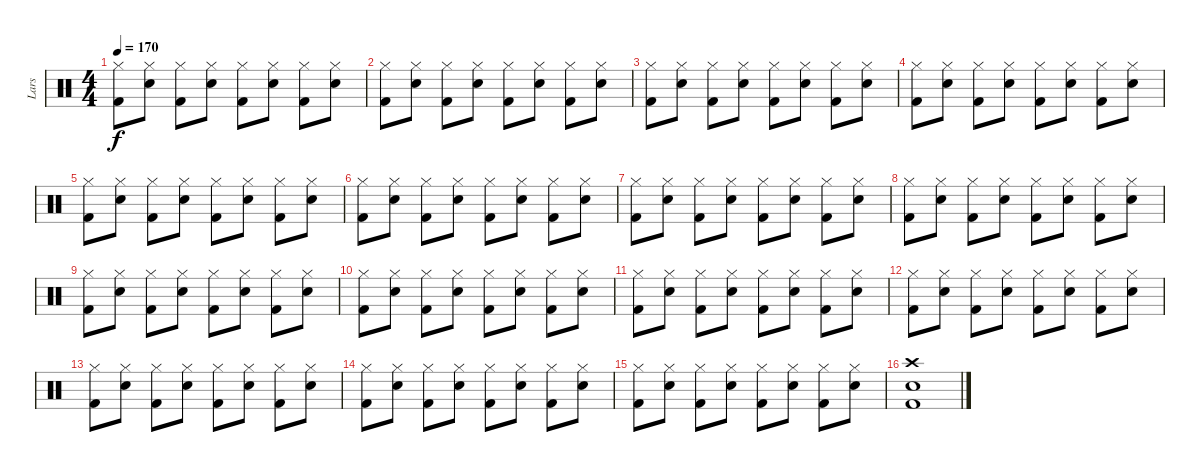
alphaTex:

\track ("Lars" "Lars") {instrument percussion}
\staff {score}
\articulation defaults
\ts (4 4)
\tempo 170
\clef neutral
\ks c
("Hi-Hat (closed)" "Kick (hit) 2").8{dy f} ("Hi-Hat (closed)" "Electric Snare (hit)").8 ("Hi-Hat (closed)" "Kick (hit) 2").8 ("Hi-Hat (closed)" "Electric Snare (hit)").8 ("Hi-Hat (closed)" "Kick (hit) 2").8 ("Hi-Hat (closed)" "Electric Snare (hit)").8 ("Hi-Hat (closed)" "Kick (hit) 2").8 ("Hi-Hat (closed)" "Electric Snare (hit)").8 |
("Hi-Hat (closed)" "Kick (hit) 2").8 ("Hi-Hat (closed)" "Electric Snare (hit)").8 ("Hi-Hat (closed)" "Kick (hit) 2").8 ("Hi-Hat (closed)" "Electric Snare (hit)").8 ("Hi-Hat (closed)" "Kick (hit) 2").8 ("Hi-Hat (closed)" "Electric Snare (hit)").8 ("Hi-Hat (closed)" "Kick (hit) 2").8 ("Hi-Hat (closed)" "Electric Snare (hit)").8 |
("Hi-Hat (closed)" "Kick (hit) 2").8 ("Hi-Hat (closed)" "Electric Snare (hit)").8 ("Hi-Hat (closed)" "Kick (hit) 2").8 ("Hi-Hat (closed)" "Electric Snare (hit)").8 ("Hi-Hat (closed)" "Kick (hit) 2").8 ("Hi-Hat (closed)" "Electric Snare (hit)").8 ("Hi-Hat (closed)" "Kick (hit) 2").8 ("Hi-Hat (closed)" "Electric Snare (hit)").8 |
("Hi-Hat (closed)" "Kick (hit) 2").8 ("Hi-Hat (closed)" "Electric Snare (hit)").8 ("Hi-Hat (closed)" "Kick (hit) 2").8 ("Hi-Hat (closed)" "Electric Snare (hit)").8 ("Hi-Hat (closed)" "Kick (hit) 2").8 ("Hi-Hat (closed)" "Electric Snare (hit)").8 ("Hi-Hat (closed)" "Kick (hit) 2").8 ("Hi-Hat (closed)" "Electric Snare (hit)").8 |
("Hi-Hat (closed)" "Kick (hit) 2").8 ("Hi-Hat (closed)" "Electric Snare (hit)").8 ("Hi-Hat (closed)" "Kick (hit) 2").8 ("Hi-Hat (closed)" "Electric Snare (hit)").8 ("Hi-Hat (closed)" "Kick (hit) 2").8 ("Hi-Hat (closed)" "Electric Snare (hit)").8 ("Hi-Hat (closed)" "Kick (hit) 2").8 ("Hi-Hat (closed)" "Electric Snare (hit)").8 |
("Hi-Hat (closed)" "Kick (hit) 2").8 ("Hi-Hat (closed)" "Electric Snare (hit)").8 ("Hi-Hat (closed)" "Kick (hit) 2").8 ("Hi-Hat (closed)" "Electric Snare (hit)").8 ("Hi-Hat (closed)" "Kick (hit) 2").8 ("Hi-Hat (closed)" "Electric Snare (hit)").8 ("Hi-Hat (closed)" "Kick (hit) 2").8 ("Hi-Hat (closed)" "Electric Snare (hit)").8 |
("Hi-Hat (closed)" "Kick (hit) 2").8 ("Hi-Hat (closed)" "Electric Snare (hit)").8 ("Hi-Hat (closed)" "Kick (hit) 2").8 ("Hi-Hat (closed)" "Electric Snare (hit)").8 ("Hi-Hat (closed)" "Kick (hit) 2").8 ("Hi-Hat (closed)" "Electric Snare (hit)").8 ("Hi-Hat (closed)" "Kick (hit) 2").8 ("Hi-Hat (closed)" "Electric Snare (hit)").8 |
("Hi-Hat (closed)" "Kick (hit) 2").8 ("Hi-Hat (closed)" "Electric Snare (hit)").8 ("Hi-Hat (closed)" "Kick (hit) 2").8 ("Hi-Hat (closed)" "Electric Snare (hit)").8 ("Hi-Hat (closed)" "Kick (hit) 2").8 ("Hi-Hat (closed)" "Electric Snare (hit)").8 ("Hi-Hat (closed)" "Kick (hit) 2").8 ("Hi-Hat (closed)" "Electric Snare (hit)").8 |
("Hi-Hat (closed)" "Kick (hit) 2").8 ("Hi-Hat (closed)" "Electric Snare (hit)").8 ("Hi-Hat (closed)" "Kick (hit) 2").8 ("Hi-Hat (closed)" "Electric Snare (hit)").8 ("Hi-Hat (closed)" "Kick (hit) 2").8 ("Hi-Hat (closed)" "Electric Snare (hit)").8 ("Hi-Hat (closed)" "Kick (hit) 2").8 ("Hi-Hat (closed)" "Electric Snare (hit)").8 |
("Hi-Hat (closed)" "Kick (hit) 2").8 ("Hi-Hat (closed)" "Electric Snare (hit)").8 ("Hi-Hat (closed)" "Kick (hit) 2").8 ("Hi-Hat (closed)" "Electric Snare (hit)").8 ("Hi-Hat (closed)" "Kick (hit) 2").8 ("Hi-Hat (closed)" "Electric Snare (hit)").8 ("Hi-Hat (closed)" "Kick (hit) 2").8 ("Hi-Hat (closed)" "Electric Snare (hit)").8 |
("Hi-Hat (closed)" "Kick (hit) 2").8 ("Hi-Hat (closed)" "Electric Snare (hit)").8 ("Hi-Hat (closed)" "Kick (hit) 2").8 ("Hi-Hat (closed)" "Electric Snare (hit)").8 ("Hi-Hat (closed)" "Kick (hit) 2").8 ("Hi-Hat (closed)" "Electric Snare (hit)").8 ("Hi-Hat (closed)" "Kick (hit) 2").8 ("Hi-Hat (closed)" "Electric Snare (hit)").8 |
("Hi-Hat (closed)" "Kick (hit) 2").8 ("Hi-Hat (closed)" "Electric Snare (hit)").8 ("Hi-Hat (closed)" "Kick (hit) 2").8 ("Hi-Hat (closed)" "Electric Snare (hit)").8 ("Hi-Hat (closed)" "Kick (hit) 2").8 ("Hi-Hat (closed)" "Electric Snare (hit)").8 ("Hi-Hat (closed)" "Kick (hit) 2").8 ("Hi-Hat (closed)" "Electric Snare (hit)").8 |
("Hi-Hat (closed)" "Kick (hit) 2").8 ("Hi-Hat (closed)" "Electric Snare (hit)").8 ("Hi-Hat (closed)" "Kick (hit) 2").8 ("Hi-Hat (closed)" "Electric Snare (hit)").8 ("Hi-Hat (closed)" "Kick (hit) 2").8 ("Hi-Hat (closed)" "Electric Snare (hit)").8 ("Hi-Hat (closed)" "Kick (hit) 2").8 ("Hi-Hat (closed)" "Electric Snare (hit)").8 |
("Hi-Hat (closed)" "Kick (hit) 2").8 ("Hi-Hat (closed)" "Electric Snare (hit)").8 ("Hi-Hat (closed)" "Kick (hit) 2").8 ("Hi-Hat (closed)" "Electric Snare (hit)").8 ("Hi-Hat (closed)" "Kick (hit) 2").8 ("Hi-Hat (closed)" "Electric Snare (hit)").8 ("Hi-Hat (closed)" "Kick (hit) 2").8 ("Hi-Hat (closed)" "Electric Snare (hit)").8 |
("Hi-Hat (closed)" "Kick (hit) 2").8 ("Hi-Hat (closed)" "Electric Snare (hit)").8 ("Hi-Hat (closed)" "Kick (hit) 2").8 ("Hi-Hat (closed)" "Electric Snare (hit)").8 ("Hi-Hat (closed)" "Kick (hit) 2").8 ("Hi-Hat (closed)" "Electric Snare (hit)").8 ("Hi-Hat (closed)" "Kick (hit) 2").8 ("Hi-Hat (closed)" "Electric Snare (hit)").8 |
("Crash high (hit)" "Electric Snare (hit)" "Kick (hit) 2").1
